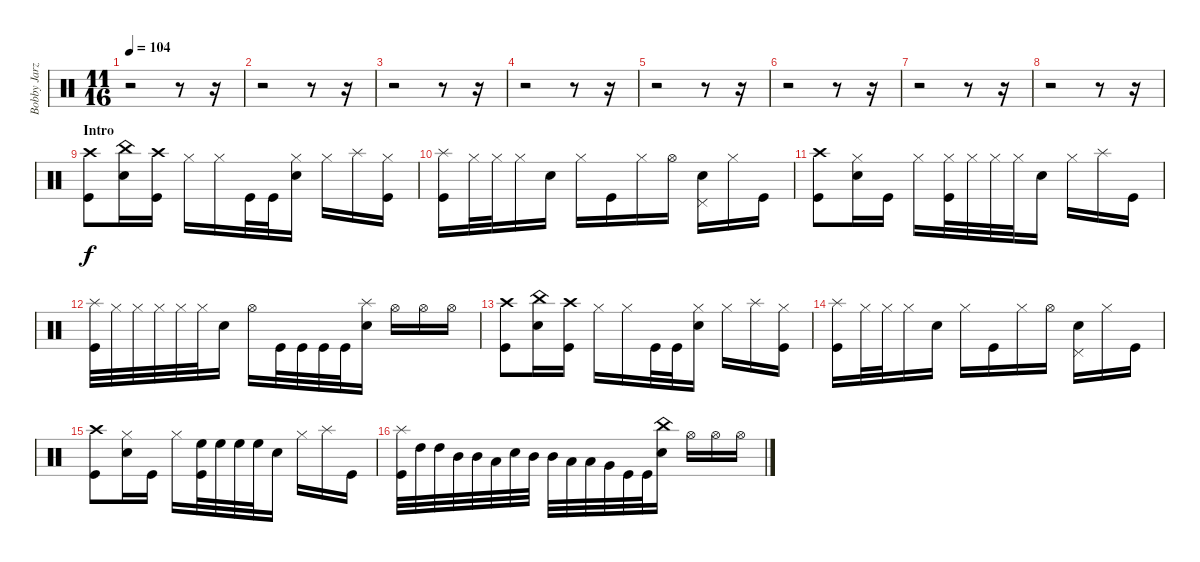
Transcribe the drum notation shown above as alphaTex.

\track ("Bobby Jarzombek" "Bobby Jarz") {instrument percussion}
\staff {score}
\articulation defaults
\ts (11 16)
\tempo 104
\clef neutral
\ks c
r.2{dy f} r.8 r.16 |
r.2 r.8 r.16 |
r.2 r.8 r.16 |
r.2 r.8 r.16 |
r.2 r.8 r.16 |
r.2 r.8 r.16 |
r.2 r.8 r.16 |
r.2 r.8 r.16 |
\section ("" "Intro")
("Crash high (hit)" "Kick (hit)").8 ("China (hit)" "Electric Snare (hit)").16 ("Crash high (hit)" "Kick (hit)").16 "Hi-Hat (closed)".16 "Hi-Hat (closed)".16 "Kick (hit)".32 "Kick (hit)".32 ("Hi-Hat (closed)" "Electric Snare (hit)").16 "Hi-Hat (closed)".16 "Splash (hit)".16 ("Hi-Hat (closed)" "Kick (hit)").16 |
("Splash (hit)" "Kick (hit)").16 "Hi-Hat (closed)".32 "Hi-Hat (closed)".32 "Hi-Hat (closed)".16 "Electric Snare (hit)".16 "Hi-Hat (closed)".16 "Kick (hit)".16 "Hi-Hat (closed)".16 "Hi-Hat (open)".16 ("Electric Snare (hit)" "Pedal Hi-Hat (hit)").16 "Hi-Hat (closed)".16 "Kick (hit)".16 |
("Crash high (hit)" "Kick (hit)").8 ("Hi-Hat (closed)" "Electric Snare (hit)").16 "Kick (hit)".16 "Hi-Hat (closed)".16 ("Hi-Hat (closed)" "Kick (hit)").32 "Hi-Hat (closed)".32 "Hi-Hat (closed)".32 "Hi-Hat (closed)".32 "Electric Snare (hit)".16 "Hi-Hat (closed)".16 "Splash (hit)".16 "Kick (hit)".16 |
("Splash (hit)" "Kick (hit)").32 "Hi-Hat (closed)".32 "Hi-Hat (closed)".32 "Hi-Hat (closed)".32 "Hi-Hat (closed)".32 "Hi-Hat (closed)".32 "Electric Snare (hit)".16 "Hi-Hat (open)".16 "Kick (hit)".32 "Kick (hit)".32 "Kick (hit)".32 "Kick (hit)".32 ("Splash (hit)" "Electric Snare (hit)").16 "Hi-Hat (open)".16 "Hi-Hat (open)".16 "Hi-Hat (open)".16 |
("Crash high (hit)" "Kick (hit)").8 ("China (hit)" "Electric Snare (hit)").16 ("Crash high (hit)" "Kick (hit)").16 "Hi-Hat (closed)".16 "Hi-Hat (closed)".16 "Kick (hit)".32 "Kick (hit)".32 ("Hi-Hat (closed)" "Electric Snare (hit)").16 "Hi-Hat (closed)".16 "Splash (hit)".16 ("Hi-Hat (closed)" "Kick (hit)").16 |
("Splash (hit)" "Kick (hit)").16 "Hi-Hat (closed)".32 "Hi-Hat (closed)".32 "Hi-Hat (closed)".16 "Electric Snare (hit)".16 "Hi-Hat (closed)".16 "Kick (hit)".16 "Hi-Hat (closed)".16 "Hi-Hat (open)".16 ("Electric Snare (hit)" "Pedal Hi-Hat (hit)").16 "Hi-Hat (closed)".16 "Kick (hit)".16 |
("Crash high (hit)" "Kick (hit)").8 ("Hi-Hat (closed)" "Electric Snare (hit)").16 "Kick (hit)".16 "Hi-Hat (closed)".16 ("High Floor Tom (hit)" "Kick (hit)").32 "High Floor Tom (hit)".32 "High Floor Tom (hit)".32 "High Floor Tom (hit)".32 "Electric Snare (hit)".16 "Hi-Hat (closed)".16 "Splash (hit)".16 "Kick (hit)".16 |
("Splash (hit)" "Kick (hit)").32 "High Tom (hit)".32 "High Tom (hit)".32 "Mid Tom (hit)".32 "Mid Tom (hit)".32 "Low Tom (hit)".32 "Electric Snare (hit)".32 "Mid Tom (hit)".32 "Mid Tom (hit)".32 "Low Tom (hit)".32 "Low Tom (hit)".32 "Very Low Tom (hit)".32 "Kick (hit)".32 "Kick (hit)".32 ("China (hit)" "Electric Snare (hit)").16 "Hi-Hat (open)".16 "Hi-Hat (open)".16 "Hi-Hat (open)".16
